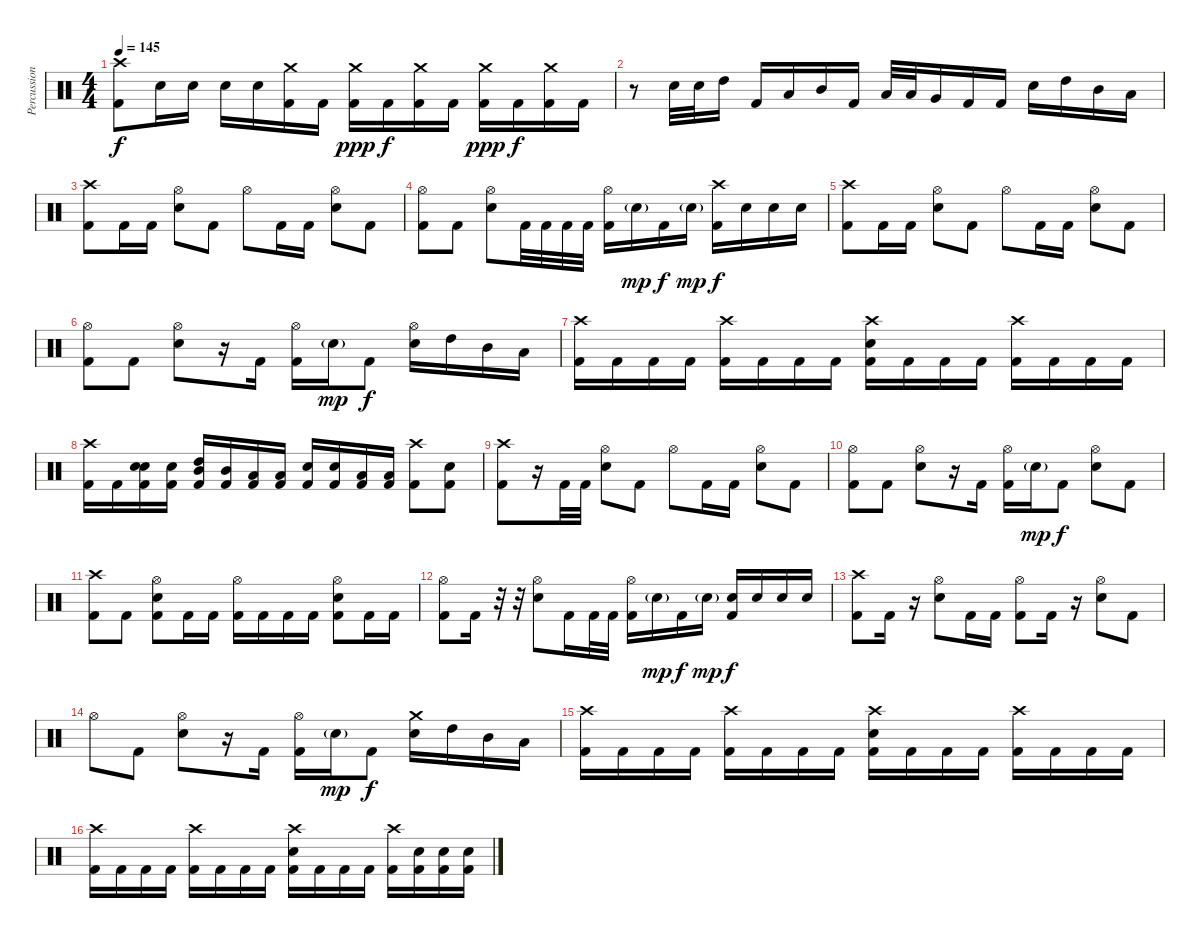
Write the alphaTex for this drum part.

\track ("Percussion" "Percussion") {instrument percussion}
\staff {score}
\articulation defaults
\ts (4 4)
\tempo 145
\clef neutral
\ks c
("Crash high (hit)" "Kick (hit) 2").8{dy f} "Electric Snare (hit)".16 "Electric Snare (hit)".16 "Electric Snare (hit)".16 "Electric Snare (hit)".16 ("Crash medium (hit)" "Kick (hit) 2").16 "Kick (hit) 2".16 ("Crash medium (hit)" "Kick (hit) 2").16{dy ppp} "Kick (hit) 2".16{dy f} ("Crash medium (hit)" "Kick (hit) 2").16 "Kick (hit) 2".16 ("Crash medium (hit)" "Kick (hit) 2").16{dy ppp} "Kick (hit) 2".16{dy f} ("Crash medium (hit)" "Kick (hit) 2").16 "Kick (hit) 2".16 |
r.8 "Electric Snare (hit)".32 "Electric Snare (hit)".32 "High Tom (hit)".16 "Kick (hit) 2".16 "Low Tom (hit)".16 "Mid Tom (hit)".16 "Kick (hit) 2".16 "Low Tom (hit)".32 "Low Tom (hit)".32 "Very Low Tom (hit)".16 "Kick (hit) 2".16 "Kick (hit) 2".16 "Electric Snare (hit)".16 "High Tom (hit)".16 "Mid Tom (hit)".16 "Low Tom (hit)".16 |
("Crash high (hit)" "Kick (hit) 2").8 "Kick (hit) 2".16 "Kick (hit) 2".16 ("Hi-Hat (open)" "Electric Snare (hit)").8 "Kick (hit) 2".8 "Hi-Hat (open)".8 "Kick (hit) 2".16 "Kick (hit) 2".16 ("Hi-Hat (open)" "Electric Snare (hit)").8 "Kick (hit) 2".8 |
("Hi-Hat (open)" "Kick (hit) 2").8 "Kick (hit) 2".8 ("Hi-Hat (open)" "Electric Snare (hit)").8 "Kick (hit) 2".32 "Kick (hit) 2".32 "Kick (hit) 2".32 "Kick (hit) 2".32 ("Hi-Hat (open)" "Kick (hit) 2").16 "Electric Snare (hit)"{g}.16{dy mp} "Kick (hit) 2".16{dy f} "Electric Snare (hit)"{g}.16{dy mp} ("Crash high (hit)" "Kick (hit) 2").16{dy f} "Electric Snare (hit)".16 "Electric Snare (hit)".16 "Electric Snare (hit)".16 |
("Crash high (hit)" "Kick (hit) 2").8 "Kick (hit) 2".16 "Kick (hit) 2".16 ("Hi-Hat (open)" "Electric Snare (hit)").8 "Kick (hit) 2".8 "Hi-Hat (open)".8 "Kick (hit) 2".16 "Kick (hit) 2".16 ("Hi-Hat (open)" "Electric Snare (hit)").8 "Kick (hit) 2".8 |
("Hi-Hat (open)" "Kick (hit) 2").8 "Kick (hit) 2".8 ("Hi-Hat (open)" "Electric Snare (hit)").8 r.16 "Kick (hit) 2".16 ("Hi-Hat (open)" "Kick (hit) 2").16 "Electric Snare (hit)"{g}.16{dy mp} "Kick (hit) 2".8{dy f} ("Hi-Hat (open)" "Electric Snare (hit)").16 "High Tom (hit)".16 "Mid Tom (hit)".16 "Low Tom (hit)".16 |
("Crash high (hit)" "Kick (hit) 2").16 "Kick (hit) 2".16 "Kick (hit) 2".16 "Kick (hit) 2".16 ("Crash high (hit)" "Kick (hit) 2").16 "Kick (hit) 2".16 "Kick (hit) 2".16 "Kick (hit) 2".16 ("Crash high (hit)" "Electric Snare (hit)" "Kick (hit) 2").16 "Kick (hit) 2".16 "Kick (hit) 2".16 "Kick (hit) 2".16 ("Crash high (hit)" "Kick (hit) 2").16 "Kick (hit) 2".16 "Kick (hit) 2".16 "Kick (hit) 2".16 |
("Crash high (hit)" "Kick (hit) 2").16 "Kick (hit) 2".16 ("Electric Snare (hit)" "Electric Snare (hit)" "Kick (hit) 2").16 ("Electric Snare (hit)" "Kick (hit) 2").16 ("Mid Tom (hit)" "High Tom (hit)" "Kick (hit) 2").16 ("Mid Tom (hit)" "Kick (hit) 2").16 ("Low Tom (hit)" "Kick (hit) 2").16 ("Low Tom (hit)" "Kick (hit) 2").16 ("Electric Snare (hit)" "Kick (hit) 2").16 ("Electric Snare (hit)" "Kick (hit) 2").16 ("Low Tom (hit)" "Kick (hit) 2").16 ("Low Tom (hit)" "Kick (hit) 2").16 ("Crash high (hit)" "Kick (hit) 2").8 ("Electric Snare (hit)" "Kick (hit) 2").8 |
("Crash high (hit)" "Kick (hit) 2").8 r.16 "Kick (hit) 2".32 "Kick (hit) 2".32 ("Hi-Hat (open)" "Electric Snare (hit)").8 "Kick (hit) 2".8 "Hi-Hat (open)".8 "Kick (hit) 2".16 "Kick (hit) 2".16 ("Hi-Hat (open)" "Electric Snare (hit)").8 "Kick (hit) 2".8 |
("Hi-Hat (open)" "Kick (hit) 2").8 "Kick (hit) 2".8 ("Hi-Hat (open)" "Electric Snare (hit)").8 r.16 "Kick (hit) 2".16 ("Hi-Hat (open)" "Kick (hit) 2").16 "Electric Snare (hit)"{g}.16{dy mp} "Kick (hit) 2".8{dy f} ("Hi-Hat (open)" "Electric Snare (hit)").8 "Kick (hit) 2".8 |
("Crash high (hit)" "Kick (hit) 2").8 "Kick (hit) 2".8 ("Hi-Hat (open)" "Electric Snare (hit)" "Kick (hit) 2").8 "Kick (hit) 2".16 "Kick (hit) 2".16 ("Hi-Hat (open)" "Kick (hit) 2").16 "Kick (hit) 2".16 "Kick (hit) 2".16 "Kick (hit) 2".16 ("Hi-Hat (open)" "Electric Snare (hit)" "Kick (hit) 2").8 "Kick (hit) 2".16 "Kick (hit) 2".16 |
("Hi-Hat (open)" "Kick (hit) 2").8 "Kick (hit) 2".16 r.32 r.32 ("Hi-Hat (open)" "Electric Snare (hit)").8 "Kick (hit) 2".16 "Kick (hit) 2".32 "Kick (hit) 2".32 ("Hi-Hat (open)" "Kick (hit) 2").16 "Electric Snare (hit)"{g}.16{dy mp} "Kick (hit) 2".16{dy f} "Electric Snare (hit)"{g}.16{dy mp} ("Electric Snare (hit)" "Kick (hit) 2").16{dy f} "Electric Snare (hit)".16 "Electric Snare (hit)".16 "Electric Snare (hit)".16 |
("Crash high (hit)" "Kick (hit) 2").8 "Kick (hit) 2".16 r.16 ("Hi-Hat (open)" "Electric Snare (hit)").8 "Kick (hit) 2".16 "Kick (hit) 2".16 ("Hi-Hat (open)" "Kick (hit) 2").8 "Kick (hit) 2".16 r.16 ("Hi-Hat (open)" "Electric Snare (hit)").8 "Kick (hit) 2".8 |
"Hi-Hat (open)".8 "Kick (hit) 2".8 ("Hi-Hat (open)" "Electric Snare (hit)").8 r.16 "Kick (hit) 2".16 ("Hi-Hat (open)" "Kick (hit) 2").16 "Electric Snare (hit)"{g}.16{dy mp} "Kick (hit) 2".8{dy f} ("Crash medium (hit)" "Electric Snare (hit)").16 "High Tom (hit)".16 "Mid Tom (hit)".16 "Low Tom (hit)".16 |
("Crash high (hit)" "Kick (hit) 2").16 "Kick (hit) 2".16 "Kick (hit) 2".16 "Kick (hit) 2".16 ("Crash high (hit)" "Kick (hit) 2").16 "Kick (hit) 2".16 "Kick (hit) 2".16 "Kick (hit) 2".16 ("Crash high (hit)" "Electric Snare (hit)" "Kick (hit) 2").16 "Kick (hit) 2".16 "Kick (hit) 2".16 "Kick (hit) 2".16 ("Crash high (hit)" "Kick (hit) 2").16 "Kick (hit) 2".16 "Kick (hit) 2".16 "Kick (hit) 2".16 |
("Crash high (hit)" "Kick (hit) 2").16 "Kick (hit) 2".16 "Kick (hit) 2".16 "Kick (hit) 2".16 ("Crash high (hit)" "Kick (hit) 2").16 "Kick (hit) 2".16 "Kick (hit) 2".16 "Kick (hit) 2".16 ("Crash high (hit)" "Electric Snare (hit)" "Kick (hit) 2").16 "Kick (hit) 2".16 "Kick (hit) 2".16 "Kick (hit) 2".16 ("Crash high (hit)" "Kick (hit) 2").16 ("Electric Snare (hit)" "Kick (hit) 2").16 ("Electric Snare (hit)" "Kick (hit) 2").16 ("Electric Snare (hit)" "Kick (hit) 2").16
